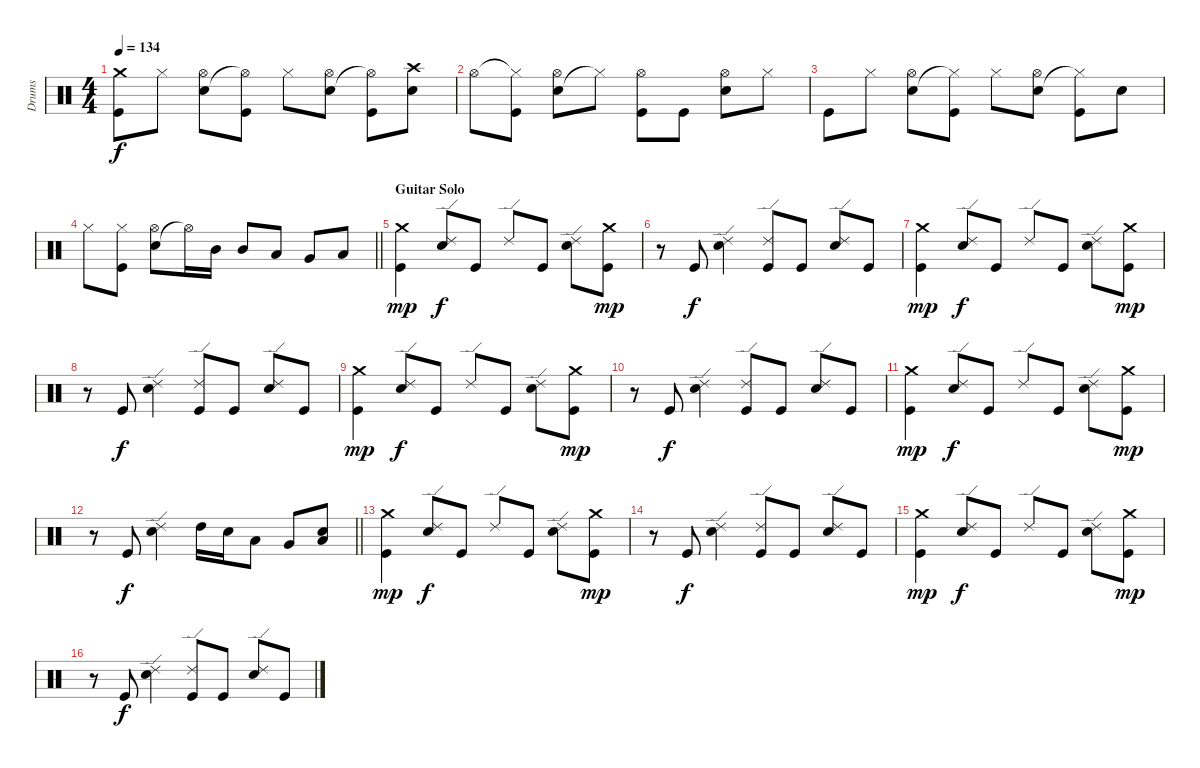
\track ("Drums" "Drums") {instrument percussion}
\staff {score}
\articulation defaults
\ts (4 4)
\tempo 134
\clef neutral
\ks c
("Crash medium (hit)" "Kick (hit)").8{dy f} "Hi-Hat (closed)".8 ("Snare (hit) 2" "Hi-Hat (open)").8 ("Hi-Hat (open)"{t} "Kick (hit)").8 "Hi-Hat (closed)".8 ("Snare (hit) 2" "Hi-Hat (open)").8 ("Hi-Hat (open)"{t} "Kick (hit)").8 ("Crash high (hit)" "Snare (hit) 2").8 |
"Hi-Hat (open)".8 ("Hi-Hat (closed)"{t} "Kick (hit)").8 ("Snare (hit) 2" "Hi-Hat (open)").8 "Hi-Hat (closed)"{t}.8 ("Hi-Hat (open)" "Kick (hit)").8 "Kick (hit)".8 ("Snare (hit) 2" "Hi-Hat (open)").8 "Hi-Hat (closed)".8 |
"Kick (hit)".8 "Hi-Hat (closed)".8 ("Snare (hit) 2" "Hi-Hat (open)").8 ("Hi-Hat (closed)"{t} "Kick (hit)").8 "Hi-Hat (closed)".8 ("Snare (hit) 2" "Hi-Hat (open)").8 ("Hi-Hat (closed)"{t} "Kick (hit)").8 "Snare (hit) 2".8 |
\barLineRight lightlight "Hi-Hat (closed)".8
("Hi-Hat (closed)" "Kick (hit)").8 ("Snare (hit) 2" "Hi-Hat (open)").8 "Hi-Hat (open)"{t}.16 "Mid Tom (hit)".16 "Mid Tom (hit)".8 "Low Tom (hit)".8 "Very Low Tom (hit)".8 "Low Floor Tom (hit)".8 |
\section ("" "Guitar Solo")
("Crash medium (hit)" "Kick (hit)").4{dy mp} ("Ride (edge) 2" "Snare (hit) 2").8{dy f} "Kick (hit)".8 "Ride (edge) 2".8 "Kick (hit)".8 ("Ride (edge) 2" "Snare (hit) 2").8 ("Crash medium (hit)" "Kick (hit)").8{dy mp} |
r.8 "Kick (hit)".8{dy f} ("Ride (edge) 2" "Snare (hit) 2").4 ("Ride (edge) 2" "Kick (hit)").8 "Kick (hit)".8 ("Ride (edge) 2" "Snare (hit) 2").8 "Kick (hit)".8 |
("Crash medium (hit)" "Kick (hit)").4{dy mp} ("Ride (edge) 2" "Snare (hit) 2").8{dy f} "Kick (hit)".8 "Ride (edge) 2".8 "Kick (hit)".8 ("Ride (edge) 2" "Snare (hit) 2").8 ("Crash medium (hit)" "Kick (hit)").8{dy mp} |
r.8 "Kick (hit)".8{dy f} ("Ride (edge) 2" "Snare (hit) 2").4 ("Ride (edge) 2" "Kick (hit)").8 "Kick (hit)".8 ("Ride (edge) 2" "Snare (hit) 2").8 "Kick (hit)".8 |
("Crash medium (hit)" "Kick (hit)").4{dy mp} ("Ride (edge) 2" "Snare (hit) 2").8{dy f} "Kick (hit)".8 "Ride (edge) 2".8 "Kick (hit)".8 ("Ride (edge) 2" "Snare (hit) 2").8 ("Crash medium (hit)" "Kick (hit)").8{dy mp} |
r.8 "Kick (hit)".8{dy f} ("Ride (edge) 2" "Snare (hit) 2").4 ("Ride (edge) 2" "Kick (hit)").8 "Kick (hit)".8 ("Ride (edge) 2" "Snare (hit) 2").8 "Kick (hit)".8 |
("Crash medium (hit)" "Kick (hit)").4{dy mp} ("Ride (edge) 2" "Snare (hit) 2").8{dy f} "Kick (hit)".8 "Ride (edge) 2".8 "Kick (hit)".8 ("Ride (edge) 2" "Snare (hit) 2").8 ("Crash medium (hit)" "Kick (hit)").8{dy mp} |
\barLineRight lightlight
r.8 "Kick (hit)".8{dy f} ("Ride (edge) 2" "Snare (hit) 2").4 "High Tom (hit)".16 "Snare (hit) 2".16 "Low Tom (hit)".8 "Very Low Tom (hit)".8 ("Snare (hit) 2" "Low Floor Tom (hit)").8 |
("Crash medium (hit)" "Kick (hit)").4{dy mp} ("Ride (edge) 2" "Snare (hit) 2").8{dy f} "Kick (hit)".8 "Ride (edge) 2".8 "Kick (hit)".8 ("Ride (edge) 2" "Snare (hit) 2").8 ("Crash medium (hit)" "Kick (hit)").8{dy mp} |
r.8 "Kick (hit)".8{dy f} ("Ride (edge) 2" "Snare (hit) 2").4 ("Ride (edge) 2" "Kick (hit)").8 "Kick (hit)".8 ("Ride (edge) 2" "Snare (hit) 2").8 "Kick (hit)".8 |
("Crash medium (hit)" "Kick (hit)").4{dy mp} ("Ride (edge) 2" "Snare (hit) 2").8{dy f} "Kick (hit)".8 "Ride (edge) 2".8 "Kick (hit)".8 ("Ride (edge) 2" "Snare (hit) 2").8 ("Crash medium (hit)" "Kick (hit)").8{dy mp} |
r.8 "Kick (hit)".8{dy f} ("Ride (edge) 2" "Snare (hit) 2").4 ("Ride (edge) 2" "Kick (hit)").8 "Kick (hit)".8 ("Ride (edge) 2" "Snare (hit) 2").8 "Kick (hit)".8
